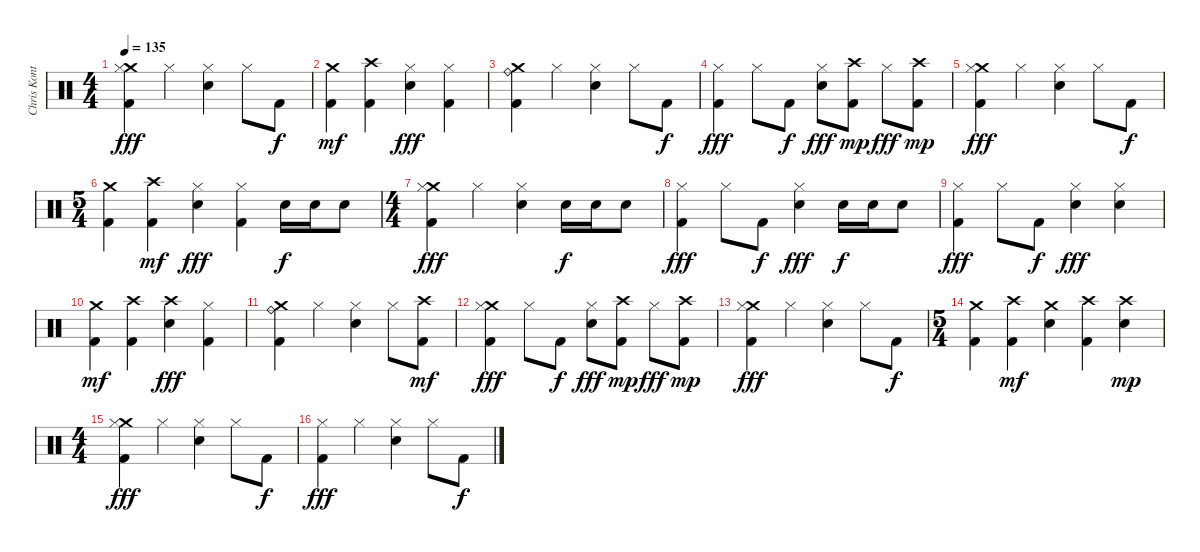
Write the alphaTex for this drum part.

\track ("Chris Kontos" "Chris Kont") {instrument percussion}
\staff {score}
\articulation defaults
\ts (4 4)
\tempo 135
\clef neutral
\ks c
("Crash medium (hit)" "Hi-Hat (closed)" "Kick (hit) 2").4{dy fff} "Hi-Hat (closed)".4 ("Electric Snare (hit)" "Hi-Hat (closed)").4 "Hi-Hat (closed)".8 "Kick (hit) 2".8{dy f} |
("Crash medium (hit)" "Kick (hit) 2").4{dy mf} ("Crash high (hit)" "Kick (hit) 2").4 ("Electric Snare (hit)" "Hi-Hat (closed)").4{dy fff} ("Hi-Hat (closed)" "Kick (hit) 2").4 |
("Crash medium (hit)" "Ride (bell)" "Kick (hit) 2").4 "Hi-Hat (closed)".4 ("Electric Snare (hit)" "Hi-Hat (closed)").4 "Hi-Hat (closed)".8 "Kick (hit) 2".8{dy f} |
("Hi-Hat (closed)" "Kick (hit) 2").4{dy fff} "Hi-Hat (closed)".8 "Kick (hit) 2".8{dy f} ("Electric Snare (hit)" "Hi-Hat (closed)").8{dy fff} ("Crash high (hit)" "Kick (hit) 2").8{dy mp} "Hi-Hat (closed)".8{dy fff} ("Crash high (hit)" "Kick (hit) 2").8{dy mp} |
("Crash medium (hit)" "Hi-Hat (closed)" "Kick (hit) 2").4{dy fff} "Hi-Hat (closed)".4 ("Electric Snare (hit)" "Hi-Hat (closed)").4 "Hi-Hat (closed)".8 "Kick (hit) 2".8{dy f} |
\ts (5 4)
("Crash medium (hit)" "Kick (hit) 2").4 ("Crash high (hit)" "Kick (hit) 2").4{dy mf} ("Electric Snare (hit)" "Hi-Hat (closed)").4{dy fff} ("Hi-Hat (closed)" "Kick (hit) 2").4 "Electric Snare (hit)".16{dy f} "Electric Snare (hit)".16 "Electric Snare (hit)".8 |
\ts (4 4)
("Crash medium (hit)" "Hi-Hat (closed)" "Kick (hit) 2").4{dy fff volume 12} "Hi-Hat (closed)".4 ("Electric Snare (hit)" "Hi-Hat (closed)").4 "Electric Snare (hit)".16{dy f} "Electric Snare (hit)".16 "Electric Snare (hit)".8 |
("Hi-Hat (closed)" "Kick (hit) 2").4{dy fff} "Hi-Hat (closed)".8 "Kick (hit) 2".8{dy f} ("Electric Snare (hit)" "Hi-Hat (closed)").4{dy fff} "Electric Snare (hit)".16{dy f} "Electric Snare (hit)".16 "Electric Snare (hit)".8 |
("Hi-Hat (closed)" "Kick (hit) 2").4{dy fff volume 10} "Hi-Hat (closed)".8 "Kick (hit) 2".8{dy f} ("Electric Snare (hit)" "Hi-Hat (closed)").4{dy fff} ("Electric Snare (hit)" "Hi-Hat (closed)").4 |
("Crash medium (hit)" "Kick (hit) 2").4{dy mf} ("Crash high (hit)" "Kick (hit) 2").4 ("Crash high (hit)" "Electric Snare (hit)").4{dy fff} ("Hi-Hat (closed)" "Kick (hit) 2").4 |
("Crash medium (hit)" "Ride (bell)" "Kick (hit) 2").4{volume 9} "Hi-Hat (closed)".4 ("Electric Snare (hit)" "Hi-Hat (closed)").4 "Hi-Hat (closed)".8 ("Crash high (hit)" "Kick (hit) 2").8{dy mf} |
("Crash medium (hit)" "Hi-Hat (closed)" "Kick (hit) 2").4{dy fff} "Hi-Hat (closed)".8 "Kick (hit) 2".8{dy f} ("Electric Snare (hit)" "Hi-Hat (closed)").8{dy fff} ("Crash high (hit)" "Kick (hit) 2").8{dy mp} "Hi-Hat (closed)".8{dy fff} ("Crash high (hit)" "Kick (hit) 2").8{dy mp} |
("Crash medium (hit)" "Hi-Hat (closed)" "Kick (hit) 2").4{dy fff volume 8} "Hi-Hat (closed)".4 ("Electric Snare (hit)" "Hi-Hat (closed)").4 "Hi-Hat (closed)".8 "Kick (hit) 2".8{dy f} |
\ts (5 4)
("Crash medium (hit)" "Kick (hit) 2").4 ("Crash high (hit)" "Kick (hit) 2").4{dy mf} ("Crash medium (hit)" "Electric Snare (hit)").4 ("Crash high (hit)" "Kick (hit) 2").4 ("Crash high (hit)" "Electric Snare (hit)").4{dy mp} |
\ts (4 4)
("Crash medium (hit)" "Hi-Hat (closed)" "Kick (hit) 2").4{dy fff volume 2} "Hi-Hat (closed)".4 ("Electric Snare (hit)" "Hi-Hat (closed)").4 "Hi-Hat (closed)".8 "Kick (hit) 2".8{dy f} |
("Hi-Hat (closed)" "Kick (hit) 2").4{dy fff} "Hi-Hat (closed)".4 ("Electric Snare (hit)" "Hi-Hat (closed)").4 "Hi-Hat (closed)".8 "Kick (hit) 2".8{dy f}
